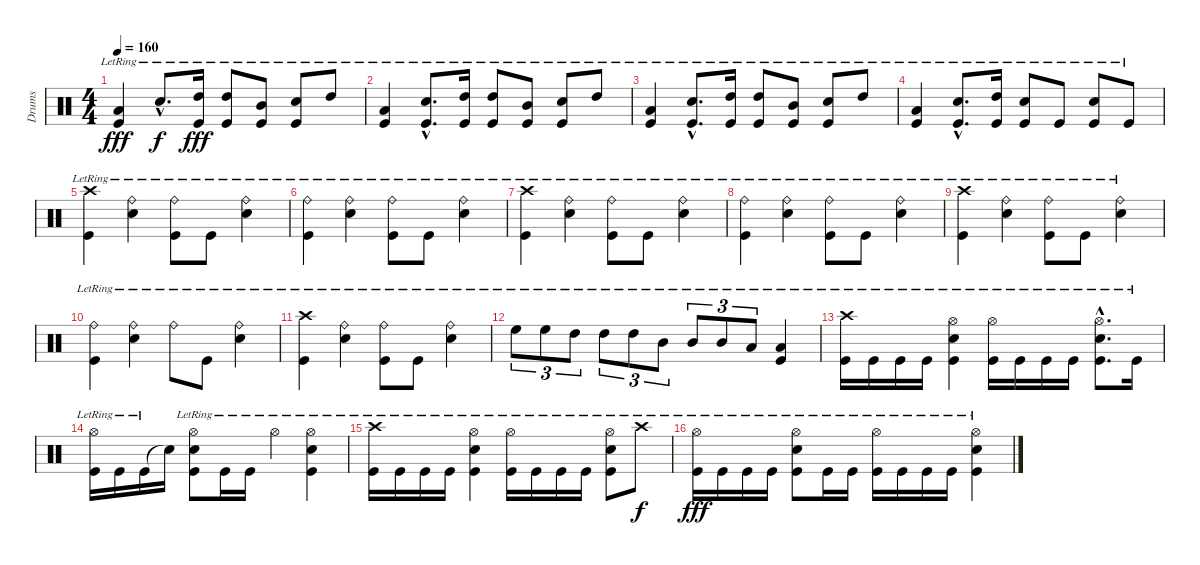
\track ("Drums" "Drums") {instrument percussion}
\staff {score}
\articulation defaults
\ts (4 4)
\tempo 160
\clef neutral
\ks c
("Low Floor Tom (hit)"{lr} "Kick (hit)"{lr}).4{dy fff} "Snare (hit) 2"{hac lr}.8{d dy f} ("High Tom (hit)"{lr} "Kick (hit)"{lr}).16{dy fff} ("High Tom (hit)"{lr} "Kick (hit)"{lr}).8 ("Mid Tom (hit)"{lr} "Kick (hit)"{lr}).8 ("Snare (hit) 2"{lr} "Kick (hit)"{lr}).8 "High Tom (hit)"{lr}.8 |
("Low Floor Tom (hit)"{lr} "Kick (hit)"{lr}).4 ("Snare (hit) 2"{hac lr} "Kick (hit)"{hac lr}).8{d} ("High Tom (hit)"{lr} "Kick (hit)"{lr}).16 ("High Tom (hit)"{lr} "Kick (hit)"{lr}).8 ("Mid Tom (hit)"{lr} "Kick (hit)"{lr}).8 ("Snare (hit) 2"{lr} "Kick (hit)"{lr}).8 "High Tom (hit)"{lr}.8 |
("Low Floor Tom (hit)"{lr} "Kick (hit)"{lr}).4 ("Snare (hit) 2"{hac lr} "Kick (hit)"{hac lr}).8{d} ("High Tom (hit)"{lr} "Kick (hit)"{lr}).16 ("High Tom (hit)"{lr} "Kick (hit)"{lr}).8 ("Mid Tom (hit)"{lr} "Kick (hit)"{lr}).8 ("Snare (hit) 2"{lr} "Kick (hit)"{lr}).8 "High Tom (hit)"{lr}.8 |
("Low Floor Tom (hit)"{lr} "Kick (hit)"{lr}).4 ("Snare (hit) 2"{hac lr} "Kick (hit)"{hac lr}).8{d} ("High Tom (hit)"{lr} "Kick (hit)"{lr}).16 ("Snare (hit) 2"{lr} "Kick (hit)"{lr}).8 "Kick (hit)"{lr}.8 ("Snare (hit) 2"{lr} "Kick (hit)"{lr}).8 "Kick (hit)"{lr}.8 |
("Crash high (hit)"{lr} "Kick (hit)"{lr}).4 ("Ride (bell)"{lr} "Snare (hit) 2"{lr}).4 ("Ride (bell)"{lr} "Kick (hit)"{lr}).8 "Kick (hit)"{lr}.8 ("Ride (bell)"{lr} "Snare (hit) 2"{lr}).4 |
("Ride (bell)"{lr} "Kick (hit)"{lr}).4 ("Ride (bell)"{lr} "Snare (hit) 2"{lr}).4 ("Ride (bell)"{lr} "Kick (hit)"{lr}).8 "Kick (hit)"{lr}.8 ("Ride (bell)"{lr} "Snare (hit) 2"{lr}).4 |
("Crash high (hit)"{lr} "Kick (hit)"{lr}).4 ("Ride (bell)"{lr} "Snare (hit) 2"{lr}).4 ("Ride (bell)"{lr} "Kick (hit)"{lr}).8 "Kick (hit)"{lr}.8 ("Ride (bell)"{lr} "Snare (hit) 2"{lr}).4 |
("Ride (bell)"{lr} "Kick (hit)"{lr}).4 ("Ride (bell)"{lr} "Snare (hit) 2"{lr}).4 ("Ride (bell)"{lr} "Kick (hit)"{lr}).8 "Kick (hit)"{lr}.8 ("Ride (bell)"{lr} "Snare (hit) 2"{lr}).4 |
("Crash high (hit)"{lr} "Kick (hit)"{lr}).4 ("Ride (bell)"{lr} "Snare (hit) 2"{lr}).4 ("Ride (bell)"{lr} "Kick (hit)"{lr}).8 "Kick (hit)"{lr}.8 ("Ride (bell)"{lr} "Snare (hit) 2"{lr}).4 |
("Ride (bell)"{lr} "Kick (hit)"{lr}).4 ("Ride (bell)"{lr} "Snare (hit) 2"{lr}).4 "Ride (bell)"{lr}.8 "Kick (hit)"{lr}.8 ("Ride (bell)"{lr} "Snare (hit) 2"{lr}).4 |
("Crash high (hit)"{lr} "Kick (hit)"{lr}).4 ("Ride (bell)"{lr} "Snare (hit) 2"{lr}).4 ("Ride (bell)"{lr} "Kick (hit)"{lr}).8 "Kick (hit)"{lr}.8 ("Ride (bell)"{lr} "Snare (hit) 2"{lr}).4 |
"High Floor Tom (hit)"{lr}.8{tu (3 2)} "High Floor Tom (hit)"{lr}.8{tu (3 2)} "High Tom (hit)"{lr}.8{tu (3 2)} "High Tom (hit)"{lr}.8{tu (3 2)} "High Tom (hit)"{lr}.8{tu (3 2)} "Mid Tom (hit)"{lr}.8{tu (3 2)} "Mid Tom (hit)"{lr}.8{tu (3 2)} "Mid Tom (hit)"{lr}.8{tu (3 2)} "Low Tom (hit)"{lr}.8{tu (3 2)} ("Low Tom (hit)"{lr} "Kick (hit)"{lr}).4 |
("Crash high (hit)"{lr} "Kick (hit)"{lr}).16 "Kick (hit)"{lr}.16 "Kick (hit)"{lr}.16 "Kick (hit)"{lr}.16 ("Hi-Hat (open)"{lr} "Snare (hit) 2"{lr} "Kick (hit)"{lr}).4 ("Hi-Hat (open)"{lr} "Kick (hit)"{lr}).16 "Kick (hit)"{lr}.16 "Kick (hit)"{lr}.16 "Kick (hit)"{lr}.16 ("Hi-Hat (open)"{hac lr} "Snare (hit) 2"{hac lr} "Kick (hit)"{hac lr}).8{d} "Kick (hit)"{lr}.16 |
("Hi-Hat (open)"{lr} "Kick (hit)"{lr}).16 "Kick (hit)"{lr}.16 "Kick (hit)"{lr}.16 "Snare (hit)"{t}.16 ("Hi-Hat (open)"{lr} "Snare (hit) 2"{lr} "Kick (hit)"{lr}).8 "Kick (hit)"{lr}.16 "Kick (hit)"{lr}.16 "Hi-Hat (open)"{lr}.4 ("Hi-Hat (open)"{lr} "Snare (hit) 2"{lr} "Kick (hit)"{lr}).4 |
("Crash high (hit)"{lr} "Kick (hit)"{lr}).16 "Kick (hit)"{lr}.16 "Kick (hit)"{lr}.16 "Kick (hit)"{lr}.16 ("Hi-Hat (open)"{lr} "Snare (hit) 2"{lr} "Kick (hit)"{lr}).4 ("Hi-Hat (open)"{lr} "Kick (hit)"{lr}).16 "Kick (hit)"{lr}.16 "Kick (hit)"{lr}.16 "Kick (hit)"{lr}.16 ("Hi-Hat (open)"{lr} "Snare (hit) 2"{lr} "Kick (hit)"{lr}).8 "Crash high (hit)"{lr}.8{dy f} |
("Hi-Hat (open)"{lr} "Kick (hit)"{lr}).16{dy fff} "Kick (hit)"{lr}.16 "Kick (hit)"{lr}.16 "Kick (hit)"{lr}.16 ("Hi-Hat (open)"{lr} "Snare (hit) 2"{lr} "Kick (hit)"{lr}).8 "Kick (hit)"{lr}.16 "Kick (hit)"{lr}.16 ("Hi-Hat (open)"{lr} "Kick (hit)"{lr}).16 "Kick (hit)"{lr}.16 "Kick (hit)"{lr}.16 "Kick (hit)"{lr}.16 ("Hi-Hat (open)"{lr} "Snare (hit) 2"{lr} "Kick (hit)"{lr}).4
